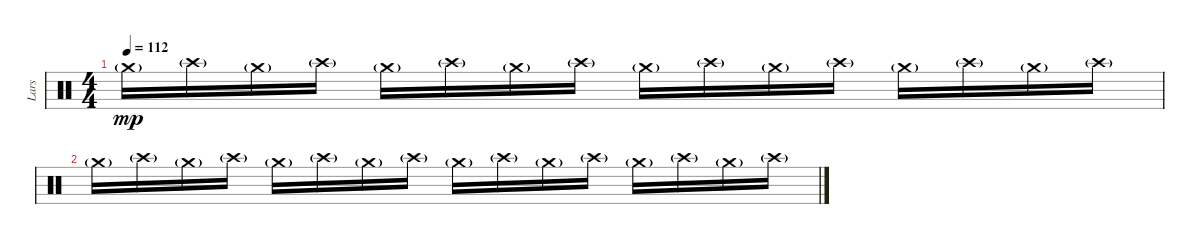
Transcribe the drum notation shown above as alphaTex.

\track ("Lars" "Lars") {instrument percussion}
\staff {score}
\articulation defaults
\ts (4 4)
\tempo 112
\clef neutral
\ks c "Crash medium (hit)"{g}.16{dy mp} "Crash high (hit)"{g}.16 "Crash medium (hit)"{g}.16 "Crash high (hit)"{g}.16 "Crash medium (hit)"{g}.16 "Crash high (hit)"{g}.16 "Crash medium (hit)"{g}.16 "Crash high (hit)"{g}.16 "Crash medium (hit)"{g}.16 "Crash high (hit)"{g}.16 "Crash medium (hit)"{g}.16 "Crash high (hit)"{g}.16 "Crash medium (hit)"{g}.16 "Crash high (hit)"{g}.16 "Crash medium (hit)"{g}.16 "Crash high (hit)"{g}.16
|
"Crash medium (hit)"{g}.16 "Crash high (hit)"{g}.16 "Crash medium (hit)"{g}.16 "Crash high (hit)"{g}.16 "Crash medium (hit)"{g}.16 "Crash high (hit)"{g}.16 "Crash medium (hit)"{g}.16 "Crash high (hit)"{g}.16 "Crash medium (hit)"{g}.16 "Crash high (hit)"{g}.16 "Crash medium (hit)"{g}.16 "Crash high (hit)"{g}.16 "Crash medium (hit)"{g}.16 "Crash high (hit)"{g}.16 "Crash medium (hit)"{g}.16 "Crash high (hit)"{g}.16
